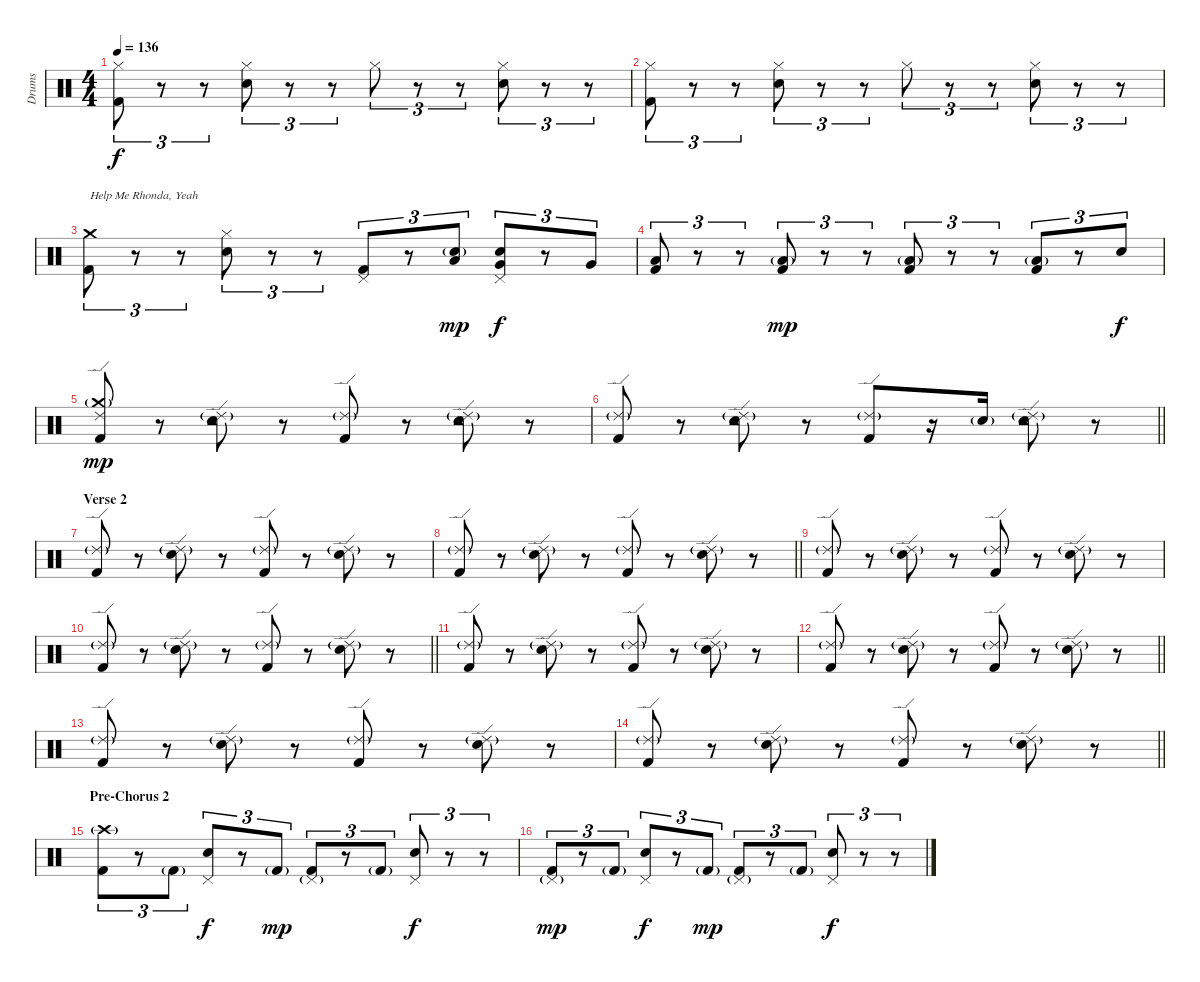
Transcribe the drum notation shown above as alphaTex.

\track ("Drums" "Drums") {instrument percussion}
\staff {score}
\articulation defaults
\ts (4 4)
\tempo 136
\clef neutral
\ks c
("Hi-Hat (closed)" "Kick (hit) 2").8{tu (3 2) dy f} r.8{tu (3 2)} r.8{tu (3 2)} ("Hi-Hat (closed)" "Snare (hit) 2").8{tu (3 2)} r.8{tu (3 2)} r.8{tu (3 2)} "Hi-Hat (closed)".8{tu (3 2)} r.8{tu (3 2)} r.8{tu (3 2)} ("Hi-Hat (closed)" "Snare (hit) 2").8{tu (3 2)} r.8{tu (3 2)} r.8{tu (3 2)} |
("Hi-Hat (closed)" "Kick (hit) 2").8{tu (3 2)} r.8{tu (3 2)} r.8{tu (3 2)} ("Hi-Hat (closed)" "Snare (hit) 2").8{tu (3 2)} r.8{tu (3 2)} r.8{tu (3 2)} "Hi-Hat (closed)".8{tu (3 2)} r.8{tu (3 2)} r.8{tu (3 2)} ("Hi-Hat (closed)" "Snare (hit) 2").8{tu (3 2)} r.8{tu (3 2)} r.8{tu (3 2)} |
("Crash medium (hit)" "Kick (hit) 2").8{tu (3 2) txt "Help Me Rhonda, Yeah"} r.8{tu (3 2)} r.8{tu (3 2)} ("Hi-Hat (closed)" "Snare (hit) 2").8{tu (3 2)} r.8{tu (3 2)} r.8{tu (3 2)} ("Pedal Hi-Hat (hit)" "Kick (hit) 2").8{tu (3 2)} r.8{tu (3 2)} ("Low Tom (hit)" "Snare (hit) 2"{g}).8{tu (3 2) dy mp} ("Very Low Tom (hit)" "Pedal Hi-Hat (hit)" "Snare (hit) 2").8{tu (3 2) dy f} r.8{tu (3 2)} "Very Low Tom (hit)".8{tu (3 2)} |
("Low Floor Tom (hit)" "Kick (hit) 2").8{tu (3 2)} r.8{tu (3 2)} r.8{tu (3 2)} ("Low Floor Tom (hit)"{g} "Kick (hit) 2").8{tu (3 2) dy mp} r.8{tu (3 2)} r.8{tu (3 2)} ("Low Floor Tom (hit)"{g} "Kick (hit) 2").8{tu (3 2)} r.8{tu (3 2)} r.8{tu (3 2)} ("Low Floor Tom (hit)"{g} "Kick (hit) 2").8{tu (3 2)} r.8{tu (3 2)} "Snare (hit) 2".8{tu (3 2) dy f} |
("Ride (edge) 2" "Crash medium (hit)"{g} "Kick (hit) 2").8{dy mp} r.8 ("Ride (edge) 2"{g} "Tambourine (hit)" "Snare (hit) 2").8 r.8 ("Ride (edge) 2"{g} "Kick (hit) 2").8 r.8 ("Ride (edge) 2"{g} "Tambourine (hit)" "Snare (hit) 2").8 r.8 |
\barLineRight lightlight
("Ride (edge) 2"{g} "Kick (hit) 2").8 r.8 ("Ride (edge) 2"{g} "Tambourine (hit)" "Snare (hit) 2").8 r.8 ("Ride (edge) 2"{g} "Kick (hit) 2").8 r.16 "Snare (hit) 2"{g}.16 ("Ride (edge) 2"{g} "Tambourine (hit)" "Snare (hit) 2").8 r.8 |
\section ("" "Verse 2")
("Ride (edge) 2"{g} "Kick (hit) 2").8 r.8 ("Ride (edge) 2"{g} "Snare (hit) 2").8 r.8 ("Ride (edge) 2"{g} "Kick (hit) 2").8 r.8 ("Ride (edge) 2"{g} "Snare (hit) 2").8 r.8 |
\barLineRight lightlight
("Ride (edge) 2"{g} "Kick (hit) 2").8 r.8 ("Ride (edge) 2"{g} "Snare (hit) 2").8 r.8 ("Ride (edge) 2"{g} "Kick (hit) 2").8 r.8 ("Ride (edge) 2"{g} "Snare (hit) 2").8 r.8 |
("Ride (edge) 2"{g} "Kick (hit) 2").8 r.8 ("Ride (edge) 2"{g} "Snare (hit) 2").8 r.8 ("Ride (edge) 2"{g} "Kick (hit) 2").8 r.8 ("Ride (edge) 2"{g} "Snare (hit) 2").8 r.8 |
\barLineRight lightlight
("Ride (edge) 2"{g} "Kick (hit) 2").8 r.8 ("Ride (edge) 2"{g} "Snare (hit) 2").8 r.8 ("Ride (edge) 2"{g} "Kick (hit) 2").8 r.8 ("Ride (edge) 2"{g} "Snare (hit) 2").8 r.8 |
("Ride (edge) 2"{g} "Kick (hit) 2").8 r.8 ("Ride (edge) 2"{g} "Snare (hit) 2").8 r.8 ("Ride (edge) 2"{g} "Kick (hit) 2").8 r.8 ("Ride (edge) 2"{g} "Snare (hit) 2").8 r.8 |
\barLineRight lightlight
("Ride (edge) 2"{g} "Kick (hit) 2").8 r.8 ("Ride (edge) 2"{g} "Snare (hit) 2").8 r.8 ("Ride (edge) 2"{g} "Kick (hit) 2").8 r.8 ("Ride (edge) 2"{g} "Snare (hit) 2").8 r.8 |
("Ride (edge) 2"{g} "Kick (hit) 2").8 r.8 ("Ride (edge) 2"{g} "Snare (hit) 2").8 r.8 ("Ride (edge) 2"{g} "Kick (hit) 2").8 r.8 ("Ride (edge) 2"{g} "Snare (hit) 2").8 r.8 |
\barLineRight lightlight
("Ride (edge) 2"{g} "Kick (hit) 2").8 r.8 ("Ride (edge) 2"{g} "Snare (hit) 2").8 r.8 ("Ride (edge) 2"{g} "Kick (hit) 2").8 r.8 ("Ride (edge) 2"{g} "Snare (hit) 2").8 r.8 |
\section ("" "Pre-Chorus 2")
("Crash high (hit)"{g} "Kick (hit) 2").8{tu (3 2)} r.8{tu (3 2)} "Kick (hit) 2"{g}.8{tu (3 2)} ("Pedal Hi-Hat (hit)" "Snare (hit) 2").8{tu (3 2) dy f} r.8{tu (3 2)} "Kick (hit) 2"{g}.8{tu (3 2) dy mp} ("Pedal Hi-Hat (hit)"{g} "Kick (hit) 2").8{tu (3 2)} r.8{tu (3 2)} "Kick (hit) 2"{g}.8{tu (3 2)} ("Pedal Hi-Hat (hit)" "Snare (hit) 2").8{tu (3 2) dy f} r.8{tu (3 2)} r.8{tu (3 2)} |
("Pedal Hi-Hat (hit)"{g} "Kick (hit) 2").8{tu (3 2) dy mp} r.8{tu (3 2)} "Kick (hit) 2"{g}.8{tu (3 2)} ("Pedal Hi-Hat (hit)" "Snare (hit) 2").8{tu (3 2) dy f} r.8{tu (3 2)} "Kick (hit) 2"{g}.8{tu (3 2) dy mp} ("Pedal Hi-Hat (hit)"{g} "Kick (hit) 2").8{tu (3 2)} r.8{tu (3 2)} "Kick (hit) 2"{g}.8{tu (3 2)} ("Pedal Hi-Hat (hit)" "Snare (hit) 2").8{tu (3 2) dy f} r.8{tu (3 2)} r.8{tu (3 2)}
